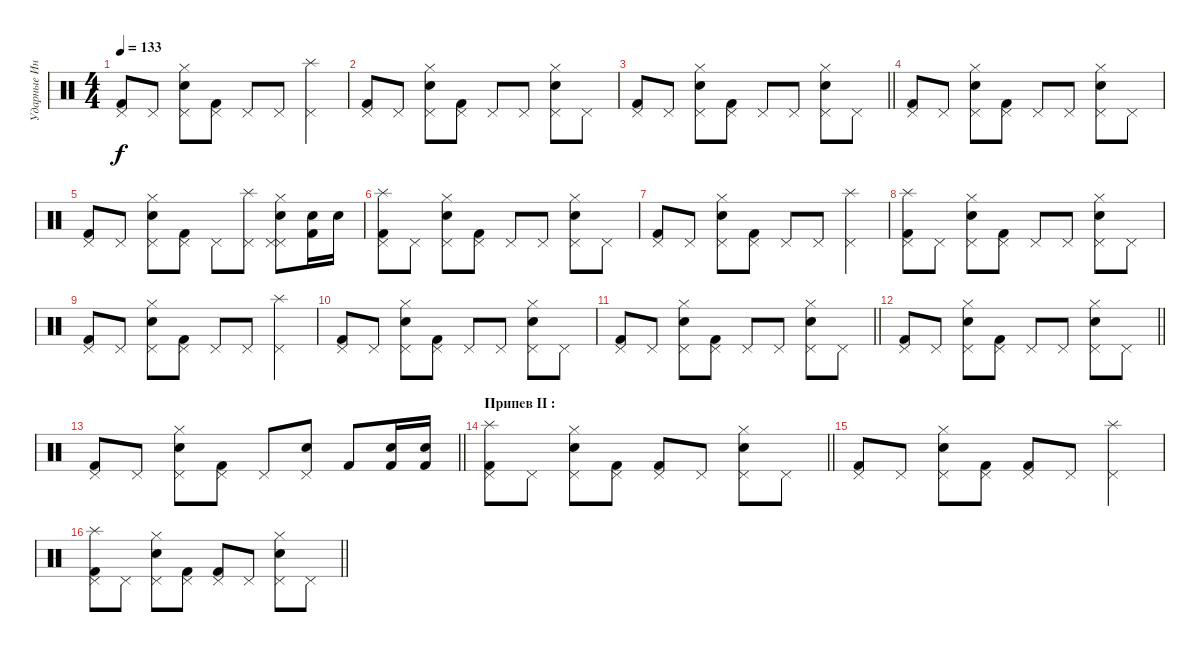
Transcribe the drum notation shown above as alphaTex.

\track ("Ударные Инструменты" "Ударные Ин") {instrument percussion}
\staff {score}
\articulation defaults
\ts (4 4)
\tempo 133
\clef neutral
\ks c
("Pedal Hi-Hat (hit)" "Kick (hit) 2").8{dy f} "Pedal Hi-Hat (hit)".8 ("Electric Snare (hit)" "Pedal Hi-Hat (hit)" "Hi-Hat (closed)").8 ("Pedal Hi-Hat (hit)" "Kick (hit) 2").8 "Pedal Hi-Hat (hit)".8 "Pedal Hi-Hat (hit)".8 ("Splash (hit)" "Pedal Hi-Hat (hit)").4 |
("Pedal Hi-Hat (hit)" "Kick (hit) 2").8 "Pedal Hi-Hat (hit)".8 ("Electric Snare (hit)" "Pedal Hi-Hat (hit)" "Hi-Hat (closed)").8 ("Pedal Hi-Hat (hit)" "Kick (hit) 2").8 "Pedal Hi-Hat (hit)".8 "Pedal Hi-Hat (hit)".8 ("Electric Snare (hit)" "Pedal Hi-Hat (hit)" "Hi-Hat (closed)").8 "Pedal Hi-Hat (hit)".8 |
\barLineRight lightlight
("Pedal Hi-Hat (hit)" "Kick (hit) 2").8 "Pedal Hi-Hat (hit)".8 ("Electric Snare (hit)" "Pedal Hi-Hat (hit)" "Hi-Hat (closed)").8 ("Pedal Hi-Hat (hit)" "Kick (hit) 2").8 "Pedal Hi-Hat (hit)".8 "Pedal Hi-Hat (hit)".8 ("Electric Snare (hit)" "Pedal Hi-Hat (hit)" "Hi-Hat (closed)").8 "Pedal Hi-Hat (hit)".8 |
("Pedal Hi-Hat (hit)" "Kick (hit) 2").8 "Pedal Hi-Hat (hit)".8 ("Electric Snare (hit)" "Pedal Hi-Hat (hit)" "Hi-Hat (closed)").8 ("Pedal Hi-Hat (hit)" "Kick (hit) 2").8 "Pedal Hi-Hat (hit)".8 "Pedal Hi-Hat (hit)".8 ("Electric Snare (hit)" "Pedal Hi-Hat (hit)" "Hi-Hat (closed)").8 "Pedal Hi-Hat (hit)".8 |
("Pedal Hi-Hat (hit)" "Kick (hit) 2").8 "Pedal Hi-Hat (hit)".8 ("Electric Snare (hit)" "Pedal Hi-Hat (hit)" "Hi-Hat (closed)").8 ("Pedal Hi-Hat (hit)" "Kick (hit) 2").8 "Pedal Hi-Hat (hit)".8 ("Splash (hit)" "Pedal Hi-Hat (hit)").8 ("Electric Snare (hit)" "Pedal Hi-Hat (hit)" "Hi-Hat (closed)" "Pedal Hi-Hat (hit)").8 ("Snare (hit) 2" "Kick (hit) 2").16 "Snare (hit) 2".16 |
("Splash (hit)" "Pedal Hi-Hat (hit)" "Kick (hit) 2").8 "Pedal Hi-Hat (hit)".8 ("Electric Snare (hit)" "Pedal Hi-Hat (hit)" "Hi-Hat (closed)").8 ("Pedal Hi-Hat (hit)" "Kick (hit) 2").8 "Pedal Hi-Hat (hit)".8 "Pedal Hi-Hat (hit)".8 ("Electric Snare (hit)" "Pedal Hi-Hat (hit)" "Hi-Hat (closed)").8 "Pedal Hi-Hat (hit)".8 |
("Pedal Hi-Hat (hit)" "Kick (hit) 2").8 "Pedal Hi-Hat (hit)".8 ("Electric Snare (hit)" "Pedal Hi-Hat (hit)" "Hi-Hat (closed)").8 ("Pedal Hi-Hat (hit)" "Kick (hit) 2").8 "Pedal Hi-Hat (hit)".8 "Pedal Hi-Hat (hit)".8 ("Splash (hit)" "Pedal Hi-Hat (hit)").4 |
("Splash (hit)" "Pedal Hi-Hat (hit)" "Kick (hit) 2").8 "Pedal Hi-Hat (hit)".8 ("Electric Snare (hit)" "Pedal Hi-Hat (hit)" "Hi-Hat (closed)").8 ("Pedal Hi-Hat (hit)" "Kick (hit) 2").8 "Pedal Hi-Hat (hit)".8 "Pedal Hi-Hat (hit)".8 ("Electric Snare (hit)" "Pedal Hi-Hat (hit)" "Hi-Hat (closed)").8 "Pedal Hi-Hat (hit)".8 |
("Pedal Hi-Hat (hit)" "Kick (hit) 2").8 "Pedal Hi-Hat (hit)".8 ("Electric Snare (hit)" "Pedal Hi-Hat (hit)" "Hi-Hat (closed)").8 ("Pedal Hi-Hat (hit)" "Kick (hit) 2").8 "Pedal Hi-Hat (hit)".8 "Pedal Hi-Hat (hit)".8 ("Splash (hit)" "Pedal Hi-Hat (hit)").4 |
("Pedal Hi-Hat (hit)" "Kick (hit) 2").8 "Pedal Hi-Hat (hit)".8 ("Electric Snare (hit)" "Pedal Hi-Hat (hit)" "Hi-Hat (closed)").8 ("Pedal Hi-Hat (hit)" "Kick (hit) 2").8 "Pedal Hi-Hat (hit)".8 "Pedal Hi-Hat (hit)".8 ("Electric Snare (hit)" "Pedal Hi-Hat (hit)" "Hi-Hat (closed)").8 "Pedal Hi-Hat (hit)".8 |
\barLineRight lightlight
("Pedal Hi-Hat (hit)" "Kick (hit) 2").8 "Pedal Hi-Hat (hit)".8 ("Electric Snare (hit)" "Pedal Hi-Hat (hit)" "Hi-Hat (closed)").8 ("Pedal Hi-Hat (hit)" "Kick (hit) 2").8 "Pedal Hi-Hat (hit)".8 "Pedal Hi-Hat (hit)".8 ("Electric Snare (hit)" "Pedal Hi-Hat (hit)" "Hi-Hat (closed)").8 "Pedal Hi-Hat (hit)".8 |
\barLineRight lightlight
("Pedal Hi-Hat (hit)" "Kick (hit) 2").8 "Pedal Hi-Hat (hit)".8 ("Electric Snare (hit)" "Pedal Hi-Hat (hit)" "Hi-Hat (closed)").8 ("Pedal Hi-Hat (hit)" "Kick (hit) 2").8 "Pedal Hi-Hat (hit)".8 "Pedal Hi-Hat (hit)".8 ("Electric Snare (hit)" "Pedal Hi-Hat (hit)" "Hi-Hat (closed)").8 "Pedal Hi-Hat (hit)".8 |
\barLineRight lightlight
("Pedal Hi-Hat (hit)" "Kick (hit) 2").8 "Pedal Hi-Hat (hit)".8 ("Electric Snare (hit)" "Pedal Hi-Hat (hit)" "Hi-Hat (closed)").8 ("Pedal Hi-Hat (hit)" "Kick (hit) 2").8 "Pedal Hi-Hat (hit)".8 ("Electric Snare (hit)" "Pedal Hi-Hat (hit)").8 "Kick (hit) 2".8 ("Snare (hit) 2" "Kick (hit) 2").16 ("Snare (hit) 2" "Kick (hit) 2").16 |
\section ("" "Припев II :")
\barLineRight lightlight
("Splash (hit)" "Pedal Hi-Hat (hit)" "Kick (hit) 2").8 "Pedal Hi-Hat (hit)".8 ("Electric Snare (hit)" "Pedal Hi-Hat (hit)" "Hi-Hat (closed)").8 ("Pedal Hi-Hat (hit)" "Kick (hit) 2").8 ("Pedal Hi-Hat (hit)" "Kick (hit) 2").8 "Pedal Hi-Hat (hit)".8 ("Electric Snare (hit)" "Pedal Hi-Hat (hit)" "Hi-Hat (closed)").8 "Pedal Hi-Hat (hit)".8 |
("Pedal Hi-Hat (hit)" "Kick (hit) 2").8 "Pedal Hi-Hat (hit)".8 ("Electric Snare (hit)" "Pedal Hi-Hat (hit)" "Hi-Hat (closed)").8 ("Pedal Hi-Hat (hit)" "Kick (hit) 2").8 ("Pedal Hi-Hat (hit)" "Kick (hit) 2").8 "Pedal Hi-Hat (hit)".8 ("Splash (hit)" "Pedal Hi-Hat (hit)").4 |
\barLineRight lightlight
("Splash (hit)" "Pedal Hi-Hat (hit)" "Kick (hit) 2").8 "Pedal Hi-Hat (hit)".8 ("Electric Snare (hit)" "Pedal Hi-Hat (hit)" "Hi-Hat (closed)").8 ("Pedal Hi-Hat (hit)" "Kick (hit) 2").8 ("Pedal Hi-Hat (hit)" "Kick (hit) 2").8 "Pedal Hi-Hat (hit)".8 ("Electric Snare (hit)" "Pedal Hi-Hat (hit)" "Hi-Hat (closed)").8 "Pedal Hi-Hat (hit)".8
